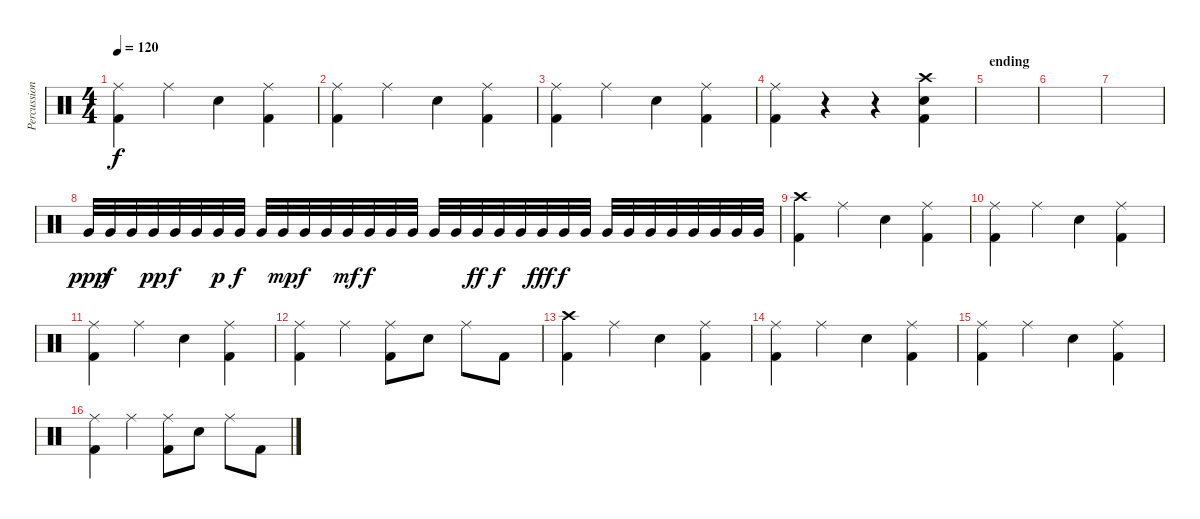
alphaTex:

\track ("Percussion" "Percussion") {instrument percussion}
\staff {score}
\articulation defaults
\ts (4 4)
\tempo 120
\clef neutral
\ks c
("Ride (middle)" "Kick (hit) 2").4{dy f} "Ride (middle)".4 "Snare (hit) 2".4 ("Ride (middle)" "Kick (hit) 2").4 |
("Ride (middle)" "Kick (hit) 2").4 "Ride (middle)".4 "Snare (hit) 2".4 ("Ride (middle)" "Kick (hit) 2").4 |
("Ride (middle)" "Kick (hit) 2").4 "Ride (middle)".4 "Snare (hit) 2".4 ("Ride (middle)" "Kick (hit) 2").4 |
("Ride (middle)" "Kick (hit) 2").4 r.4 r.4 ("Crash high (hit)" "Snare (hit) 2" "Kick (hit) 2").4 |
\section ("" "ending")
|
|
|
"Very Low Tom (hit)".32{dy ppp} "Very Low Tom (hit)".32{dy f} "Very Low Tom (hit)".32 "Very Low Tom (hit)".32{dy pp} "Very Low Tom (hit)".32{dy f} "Very Low Tom (hit)".32 "Very Low Tom (hit)".32{dy p} "Very Low Tom (hit)".32{dy f} "Very Low Tom (hit)".32 "Very Low Tom (hit)".32{dy mp} "Very Low Tom (hit)".32{dy f} "Very Low Tom (hit)".32 "Very Low Tom (hit)".32{dy mf} "Very Low Tom (hit)".32{dy f} "Very Low Tom (hit)".32 "Very Low Tom (hit)".32 "Very Low Tom (hit)".32 "Very Low Tom (hit)".32 "Very Low Tom (hit)".32{dy ff} "Very Low Tom (hit)".32{dy f} "Very Low Tom (hit)".32 "Very Low Tom (hit)".32{dy fff} "Very Low Tom (hit)".32{dy f} "Very Low Tom (hit)".32 "Very Low Tom (hit)".32 "Very Low Tom (hit)".32 "Very Low Tom (hit)".32 "Very Low Tom (hit)".32 "Very Low Tom (hit)".32 "Very Low Tom (hit)".32 "Very Low Tom (hit)".32 "Very Low Tom (hit)".32 |
("Crash high (hit)" "Kick (hit) 2").4 "Ride (middle)".4 "Snare (hit) 2".4 ("Ride (middle)" "Kick (hit) 2").4 |
("Ride (middle)" "Kick (hit) 2").4 "Ride (middle)".4 "Snare (hit) 2".4 ("Ride (middle)" "Kick (hit) 2").4 |
("Ride (middle)" "Kick (hit) 2").4 "Ride (middle)".4 "Snare (hit) 2".4 ("Ride (middle)" "Kick (hit) 2").4 |
("Ride (middle)" "Kick (hit) 2").4 "Ride (middle)".4 ("Ride (middle)" "Kick (hit) 2").8 "Snare (hit) 2".8 "Ride (middle)".8 "Kick (hit) 2".8 |
("Crash high (hit)" "Kick (hit) 2").4 "Ride (middle)".4 "Snare (hit) 2".4 ("Ride (middle)" "Kick (hit) 2").4 |
("Ride (middle)" "Kick (hit) 2").4 "Ride (middle)".4 "Snare (hit) 2".4 ("Ride (middle)" "Kick (hit) 2").4 |
("Ride (middle)" "Kick (hit) 2").4 "Ride (middle)".4 "Snare (hit) 2".4 ("Ride (middle)" "Kick (hit) 2").4 |
("Ride (middle)" "Kick (hit) 2").4 "Ride (middle)".4 ("Ride (middle)" "Kick (hit) 2").8 "Snare (hit) 2".8 "Ride (middle)".8 "Kick (hit) 2".8
